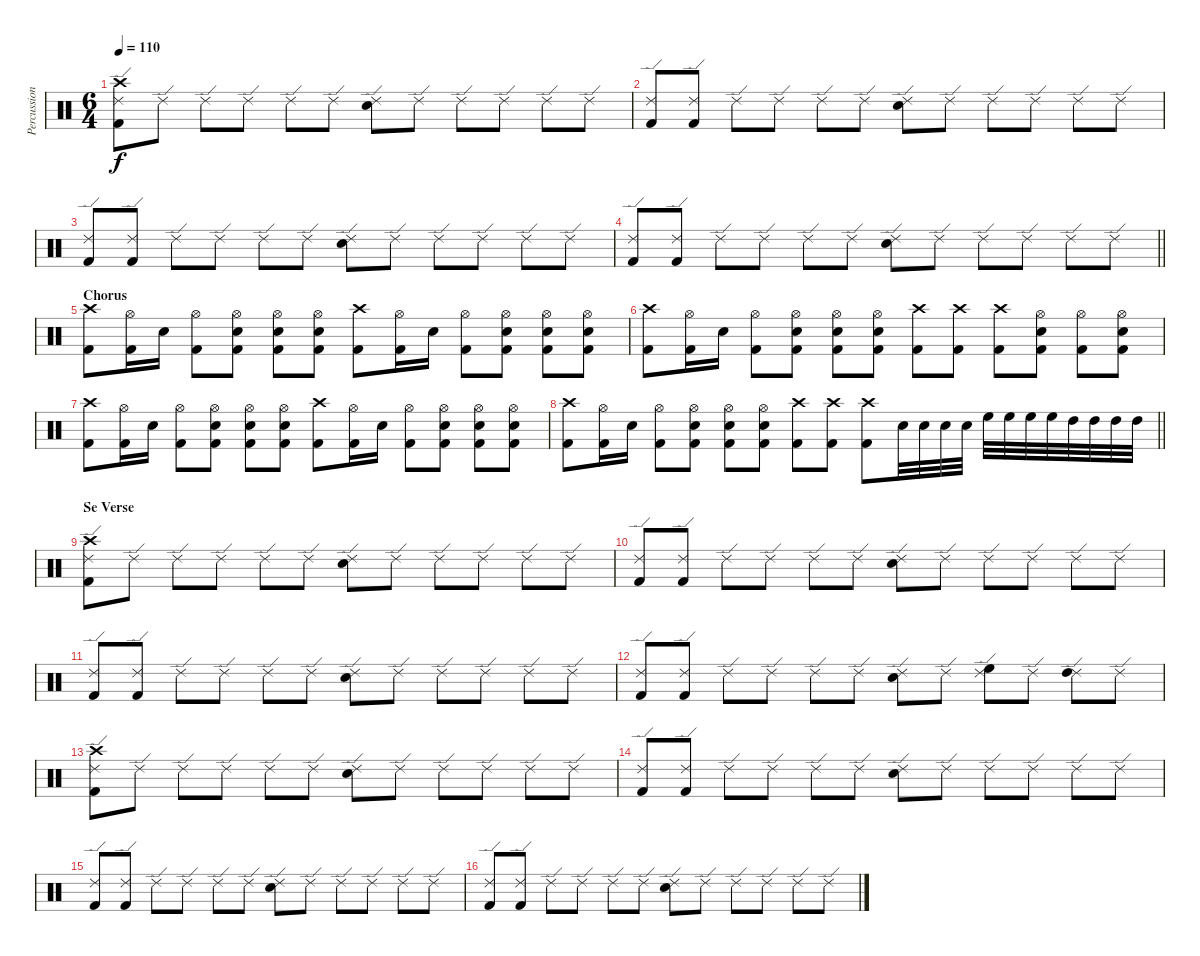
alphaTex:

\track ("Percussion" "Percussion") {instrument percussion}
\staff {score}
\articulation defaults
\ts (6 4)
\tempo 110
\clef neutral
\ks c
("Ride (edge) 2" "Kick (hit) 2" "Crash high (hit)").8{dy f} "Ride (edge) 2".8 "Ride (edge) 2".8 "Ride (edge) 2".8 "Ride (edge) 2".8 "Ride (edge) 2".8 ("Ride (edge) 2" "Electric Snare (hit)").8 "Ride (edge) 2".8 "Ride (edge) 2".8 "Ride (edge) 2".8 "Ride (edge) 2".8 "Ride (edge) 2".8 |
("Ride (edge) 2" "Kick (hit) 2").8 ("Ride (edge) 2" "Kick (hit) 2").8 "Ride (edge) 2".8 "Ride (edge) 2".8 "Ride (edge) 2".8 "Ride (edge) 2".8 ("Ride (edge) 2" "Electric Snare (hit)").8 "Ride (edge) 2".8 "Ride (edge) 2".8 "Ride (edge) 2".8 "Ride (edge) 2".8 "Ride (edge) 2".8 |
("Ride (edge) 2" "Kick (hit) 2").8 ("Ride (edge) 2" "Kick (hit) 2").8 "Ride (edge) 2".8 "Ride (edge) 2".8 "Ride (edge) 2".8 "Ride (edge) 2".8 ("Ride (edge) 2" "Electric Snare (hit)").8 "Ride (edge) 2".8 "Ride (edge) 2".8 "Ride (edge) 2".8 "Ride (edge) 2".8 "Ride (edge) 2".8 |
\barLineRight lightlight
("Ride (edge) 2" "Kick (hit) 2").8 ("Ride (edge) 2" "Kick (hit) 2").8 "Ride (edge) 2".8 "Ride (edge) 2".8 "Ride (edge) 2".8 "Ride (edge) 2".8 ("Ride (edge) 2" "Electric Snare (hit)").8 "Ride (edge) 2".8 "Ride (edge) 2".8 "Ride (edge) 2".8 "Ride (edge) 2".8 "Ride (edge) 2".8 |
\section ("" "Chorus")
("Crash high (hit)" "Kick (hit) 2").8 ("Hi-Hat (open)" "Kick (hit) 2").16 "Electric Snare (hit)".16 ("Hi-Hat (open)" "Kick (hit) 2").8 ("Hi-Hat (open)" "Kick (hit) 2" "Electric Snare (hit)").8 ("Hi-Hat (open)" "Kick (hit) 2" "Electric Snare (hit)").8 ("Hi-Hat (open)" "Kick (hit) 2" "Electric Snare (hit)").8 ("Crash high (hit)" "Kick (hit) 2").8 ("Hi-Hat (open)" "Kick (hit) 2").16 "Electric Snare (hit)".16 ("Hi-Hat (open)" "Kick (hit) 2").8 ("Hi-Hat (open)" "Kick (hit) 2" "Electric Snare (hit)").8 ("Hi-Hat (open)" "Kick (hit) 2" "Electric Snare (hit)").8 ("Hi-Hat (open)" "Kick (hit) 2" "Electric Snare (hit)").8 |
("Crash high (hit)" "Kick (hit) 2").8 ("Hi-Hat (open)" "Kick (hit) 2").16 "Electric Snare (hit)".16 ("Hi-Hat (open)" "Kick (hit) 2").8 ("Hi-Hat (open)" "Kick (hit) 2" "Electric Snare (hit)").8 ("Hi-Hat (open)" "Kick (hit) 2" "Electric Snare (hit)").8 ("Hi-Hat (open)" "Kick (hit) 2" "Electric Snare (hit)").8 ("Crash high (hit)" "Kick (hit) 2").8 ("Crash high (hit)" "Kick (hit) 2").8 ("Crash high (hit)" "Kick (hit) 2").8 ("Hi-Hat (open)" "Kick (hit) 2" "Electric Snare (hit)").8 ("Hi-Hat (open)" "Kick (hit) 2").8 ("Hi-Hat (open)" "Kick (hit) 2" "Electric Snare (hit)").8 |
("Crash high (hit)" "Kick (hit) 2").8 ("Hi-Hat (open)" "Kick (hit) 2").16 "Electric Snare (hit)".16 ("Hi-Hat (open)" "Kick (hit) 2").8 ("Hi-Hat (open)" "Kick (hit) 2" "Electric Snare (hit)").8 ("Hi-Hat (open)" "Kick (hit) 2" "Electric Snare (hit)").8 ("Hi-Hat (open)" "Kick (hit) 2" "Electric Snare (hit)").8 ("Crash high (hit)" "Kick (hit) 2").8 ("Hi-Hat (open)" "Kick (hit) 2").16 "Electric Snare (hit)".16 ("Hi-Hat (open)" "Kick (hit) 2").8 ("Hi-Hat (open)" "Kick (hit) 2" "Electric Snare (hit)").8 ("Hi-Hat (open)" "Kick (hit) 2" "Electric Snare (hit)").8 ("Hi-Hat (open)" "Kick (hit) 2" "Electric Snare (hit)").8 |
\barLineRight lightlight
("Crash high (hit)" "Kick (hit) 2").8 ("Hi-Hat (open)" "Kick (hit) 2").16 "Electric Snare (hit)".16 ("Hi-Hat (open)" "Kick (hit) 2").8 ("Hi-Hat (open)" "Kick (hit) 2" "Electric Snare (hit)").8 ("Hi-Hat (open)" "Kick (hit) 2" "Electric Snare (hit)").8 ("Hi-Hat (open)" "Kick (hit) 2" "Electric Snare (hit)").8 ("Crash high (hit)" "Kick (hit) 2").8 ("Crash high (hit)" "Kick (hit) 2").8 ("Crash high (hit)" "Kick (hit) 2").8 "Electric Snare (hit)".32 "Electric Snare (hit)".32 "Electric Snare (hit)".32 "Electric Snare (hit)".32 "High Floor Tom (hit)".32 "High Floor Tom (hit)".32 "High Floor Tom (hit)".32 "High Floor Tom (hit)".32 "High Tom (hit)".32 "High Tom (hit)".32 "High Tom (hit)".32 "High Tom (hit)".32 |
\section ("" "Se Verse")
("Ride (edge) 2" "Crash high (hit)" "Kick (hit) 2").8 "Ride (edge) 2".8 "Ride (edge) 2".8 "Ride (edge) 2".8 "Ride (edge) 2".8 "Ride (edge) 2".8 ("Ride (edge) 2" "Electric Snare (hit)").8 "Ride (edge) 2".8 "Ride (edge) 2".8 "Ride (edge) 2".8 "Ride (edge) 2".8 "Ride (edge) 2".8 |
("Ride (edge) 2" "Kick (hit) 2").8 ("Ride (edge) 2" "Kick (hit) 2").8 "Ride (edge) 2".8 "Ride (edge) 2".8 "Ride (edge) 2".8 "Ride (edge) 2".8 ("Ride (edge) 2" "Electric Snare (hit)").8 "Ride (edge) 2".8 "Ride (edge) 2".8 "Ride (edge) 2".8 "Ride (edge) 2".8 "Ride (edge) 2".8 |
("Ride (edge) 2" "Kick (hit) 2").8 ("Ride (edge) 2" "Kick (hit) 2").8 "Ride (edge) 2".8 "Ride (edge) 2".8 "Ride (edge) 2".8 "Ride (edge) 2".8 ("Ride (edge) 2" "Electric Snare (hit)").8 "Ride (edge) 2".8 "Ride (edge) 2".8 "Ride (edge) 2".8 "Ride (edge) 2".8 "Ride (edge) 2".8 |
("Ride (edge) 2" "Kick (hit) 2").8 ("Ride (edge) 2" "Kick (hit) 2").8 "Ride (edge) 2".8 "Ride (edge) 2".8 "Ride (edge) 2".8 "Ride (edge) 2".8 ("Ride (edge) 2" "Electric Snare (hit)").8 "Ride (edge) 2".8 ("Ride (edge) 2" "High Floor Tom (hit)").8 "Ride (edge) 2".8 ("Ride (edge) 2" "High Tom (hit)").8 "Ride (edge) 2".8 |
("Ride (edge) 2" "Kick (hit) 2" "Crash high (hit)").8 "Ride (edge) 2".8 "Ride (edge) 2".8 "Ride (edge) 2".8 "Ride (edge) 2".8 "Ride (edge) 2".8 ("Ride (edge) 2" "Electric Snare (hit)").8 "Ride (edge) 2".8 "Ride (edge) 2".8 "Ride (edge) 2".8 "Ride (edge) 2".8 "Ride (edge) 2".8 |
("Ride (edge) 2" "Kick (hit) 2").8 ("Ride (edge) 2" "Kick (hit) 2").8 "Ride (edge) 2".8 "Ride (edge) 2".8 "Ride (edge) 2".8 "Ride (edge) 2".8 ("Ride (edge) 2" "Electric Snare (hit)").8 "Ride (edge) 2".8 "Ride (edge) 2".8 "Ride (edge) 2".8 "Ride (edge) 2".8 "Ride (edge) 2".8 |
("Ride (edge) 2" "Kick (hit) 2").8 ("Ride (edge) 2" "Kick (hit) 2").8 "Ride (edge) 2".8 "Ride (edge) 2".8 "Ride (edge) 2".8 "Ride (edge) 2".8 ("Ride (edge) 2" "Electric Snare (hit)").8 "Ride (edge) 2".8 "Ride (edge) 2".8 "Ride (edge) 2".8 "Ride (edge) 2".8 "Ride (edge) 2".8 |
("Ride (edge) 2" "Kick (hit) 2").8 ("Ride (edge) 2" "Kick (hit) 2").8 "Ride (edge) 2".8 "Ride (edge) 2".8 "Ride (edge) 2".8 "Ride (edge) 2".8 ("Ride (edge) 2" "Electric Snare (hit)").8 "Ride (edge) 2".8 "Ride (edge) 2".8 "Ride (edge) 2".8 "Ride (edge) 2".8 "Ride (edge) 2".8
